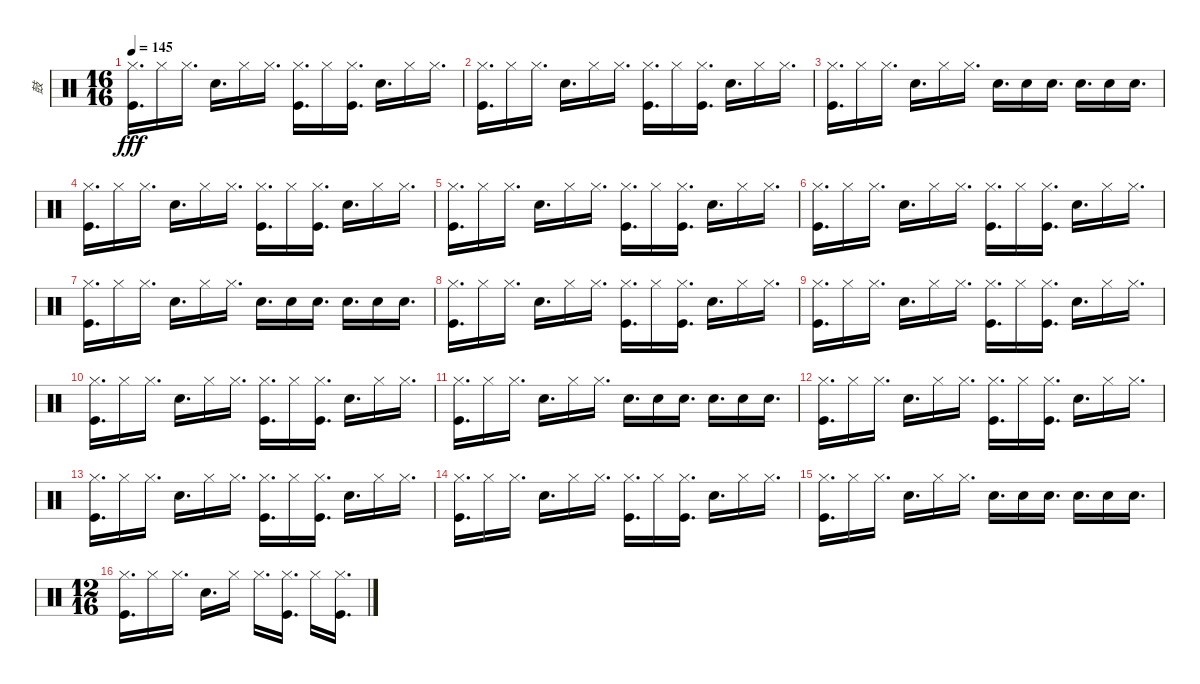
\track ("鼓" "鼓") {instrument percussion}
\staff {score}
\articulation defaults
\ts (16 16)
\tempo 145
\clef neutral
\ks c
("Hi-Hat (closed)" "Kick (hit)").16{d dy fff} "Hi-Hat (closed)".16 "Hi-Hat (closed)".16{d} "Snare (hit) 2".16{d} "Hi-Hat (closed)".16 "Hi-Hat (closed)".16{d} ("Hi-Hat (closed)" "Kick (hit)").16{d} "Hi-Hat (closed)".16 ("Hi-Hat (closed)" "Kick (hit)").16{d} "Snare (hit) 2".16{d} "Hi-Hat (closed)".16 "Hi-Hat (closed)".16{d} |
("Hi-Hat (closed)" "Kick (hit)").16{d} "Hi-Hat (closed)".16 "Hi-Hat (closed)".16{d} "Snare (hit) 2".16{d} "Hi-Hat (closed)".16 "Hi-Hat (closed)".16{d} ("Hi-Hat (closed)" "Kick (hit)").16{d} "Hi-Hat (closed)".16 ("Hi-Hat (closed)" "Kick (hit)").16{d} "Snare (hit) 2".16{d} "Hi-Hat (closed)".16 "Hi-Hat (closed)".16{d} |
("Hi-Hat (closed)" "Kick (hit)").16{d} "Hi-Hat (closed)".16 "Hi-Hat (closed)".16{d} "Snare (hit) 2".16{d} "Hi-Hat (closed)".16 "Hi-Hat (closed)".16{d} "Snare (hit) 2".16{d} "Snare (hit) 2".16 "Snare (hit) 2".16{d} "Snare (hit) 2".16{d} "Snare (hit) 2".16 "Snare (hit) 2".16{d} |
("Hi-Hat (closed)" "Kick (hit)").16{d} "Hi-Hat (closed)".16 "Hi-Hat (closed)".16{d} "Snare (hit) 2".16{d} "Hi-Hat (closed)".16 "Hi-Hat (closed)".16{d} ("Hi-Hat (closed)" "Kick (hit)").16{d} "Hi-Hat (closed)".16 ("Hi-Hat (closed)" "Kick (hit)").16{d} "Snare (hit) 2".16{d} "Hi-Hat (closed)".16 "Hi-Hat (closed)".16{d} |
("Hi-Hat (closed)" "Kick (hit)").16{d} "Hi-Hat (closed)".16 "Hi-Hat (closed)".16{d} "Snare (hit) 2".16{d} "Hi-Hat (closed)".16 "Hi-Hat (closed)".16{d} ("Hi-Hat (closed)" "Kick (hit)").16{d} "Hi-Hat (closed)".16 ("Hi-Hat (closed)" "Kick (hit)").16{d} "Snare (hit) 2".16{d} "Hi-Hat (closed)".16 "Hi-Hat (closed)".16{d} |
("Hi-Hat (closed)" "Kick (hit)").16{d} "Hi-Hat (closed)".16 "Hi-Hat (closed)".16{d} "Snare (hit) 2".16{d} "Hi-Hat (closed)".16 "Hi-Hat (closed)".16{d} ("Hi-Hat (closed)" "Kick (hit)").16{d} "Hi-Hat (closed)".16 ("Hi-Hat (closed)" "Kick (hit)").16{d} "Snare (hit) 2".16{d} "Hi-Hat (closed)".16 "Hi-Hat (closed)".16{d} |
("Hi-Hat (closed)" "Kick (hit)").16{d} "Hi-Hat (closed)".16 "Hi-Hat (closed)".16{d} "Snare (hit) 2".16{d} "Hi-Hat (closed)".16 "Hi-Hat (closed)".16{d} "Snare (hit) 2".16{d} "Snare (hit) 2".16 "Snare (hit) 2".16{d} "Snare (hit) 2".16{d} "Snare (hit) 2".16 "Snare (hit) 2".16{d} |
("Hi-Hat (closed)" "Kick (hit)").16{d} "Hi-Hat (closed)".16 "Hi-Hat (closed)".16{d} "Snare (hit) 2".16{d} "Hi-Hat (closed)".16 "Hi-Hat (closed)".16{d} ("Hi-Hat (closed)" "Kick (hit)").16{d} "Hi-Hat (closed)".16 ("Hi-Hat (closed)" "Kick (hit)").16{d} "Snare (hit) 2".16{d} "Hi-Hat (closed)".16 "Hi-Hat (closed)".16{d} |
("Hi-Hat (closed)" "Kick (hit)").16{d} "Hi-Hat (closed)".16 "Hi-Hat (closed)".16{d} "Snare (hit) 2".16{d} "Hi-Hat (closed)".16 "Hi-Hat (closed)".16{d} ("Hi-Hat (closed)" "Kick (hit)").16{d} "Hi-Hat (closed)".16 ("Hi-Hat (closed)" "Kick (hit)").16{d} "Snare (hit) 2".16{d} "Hi-Hat (closed)".16 "Hi-Hat (closed)".16{d} |
("Hi-Hat (closed)" "Kick (hit)").16{d} "Hi-Hat (closed)".16 "Hi-Hat (closed)".16{d} "Snare (hit) 2".16{d} "Hi-Hat (closed)".16 "Hi-Hat (closed)".16{d} ("Hi-Hat (closed)" "Kick (hit)").16{d} "Hi-Hat (closed)".16 ("Hi-Hat (closed)" "Kick (hit)").16{d} "Snare (hit) 2".16{d} "Hi-Hat (closed)".16 "Hi-Hat (closed)".16{d} |
("Hi-Hat (closed)" "Kick (hit)").16{d} "Hi-Hat (closed)".16 "Hi-Hat (closed)".16{d} "Snare (hit) 2".16{d} "Hi-Hat (closed)".16 "Hi-Hat (closed)".16{d} "Snare (hit) 2".16{d} "Snare (hit) 2".16 "Snare (hit) 2".16{d} "Snare (hit) 2".16{d} "Snare (hit) 2".16 "Snare (hit) 2".16{d} |
("Hi-Hat (closed)" "Kick (hit)").16{d} "Hi-Hat (closed)".16 "Hi-Hat (closed)".16{d} "Snare (hit) 2".16{d} "Hi-Hat (closed)".16 "Hi-Hat (closed)".16{d} ("Hi-Hat (closed)" "Kick (hit)").16{d} "Hi-Hat (closed)".16 ("Hi-Hat (closed)" "Kick (hit)").16{d} "Snare (hit) 2".16{d} "Hi-Hat (closed)".16 "Hi-Hat (closed)".16{d} |
("Hi-Hat (closed)" "Kick (hit)").16{d} "Hi-Hat (closed)".16 "Hi-Hat (closed)".16{d} "Snare (hit) 2".16{d} "Hi-Hat (closed)".16 "Hi-Hat (closed)".16{d} ("Hi-Hat (closed)" "Kick (hit)").16{d} "Hi-Hat (closed)".16 ("Hi-Hat (closed)" "Kick (hit)").16{d} "Snare (hit) 2".16{d} "Hi-Hat (closed)".16 "Hi-Hat (closed)".16{d} |
("Hi-Hat (closed)" "Kick (hit)").16{d} "Hi-Hat (closed)".16 "Hi-Hat (closed)".16{d} "Snare (hit) 2".16{d} "Hi-Hat (closed)".16 "Hi-Hat (closed)".16{d} ("Hi-Hat (closed)" "Kick (hit)").16{d} "Hi-Hat (closed)".16 ("Hi-Hat (closed)" "Kick (hit)").16{d} "Snare (hit) 2".16{d} "Hi-Hat (closed)".16 "Hi-Hat (closed)".16{d} |
("Hi-Hat (closed)" "Kick (hit)").16{d} "Hi-Hat (closed)".16 "Hi-Hat (closed)".16{d} "Snare (hit) 2".16{d} "Hi-Hat (closed)".16 "Hi-Hat (closed)".16{d} "Snare (hit) 2".16{d} "Snare (hit) 2".16 "Snare (hit) 2".16{d} "Snare (hit) 2".16{d} "Snare (hit) 2".16 "Snare (hit) 2".16{d} |
\ts (12 16)
("Hi-Hat (closed)" "Kick (hit)").16{d} "Hi-Hat (closed)".16 "Hi-Hat (closed)".16{d} "Snare (hit) 2".16{d} "Hi-Hat (closed)".16 "Hi-Hat (closed)".16{d} ("Hi-Hat (closed)" "Kick (hit)").16{d} "Hi-Hat (closed)".16 ("Hi-Hat (closed)" "Kick (hit)").16{d}
